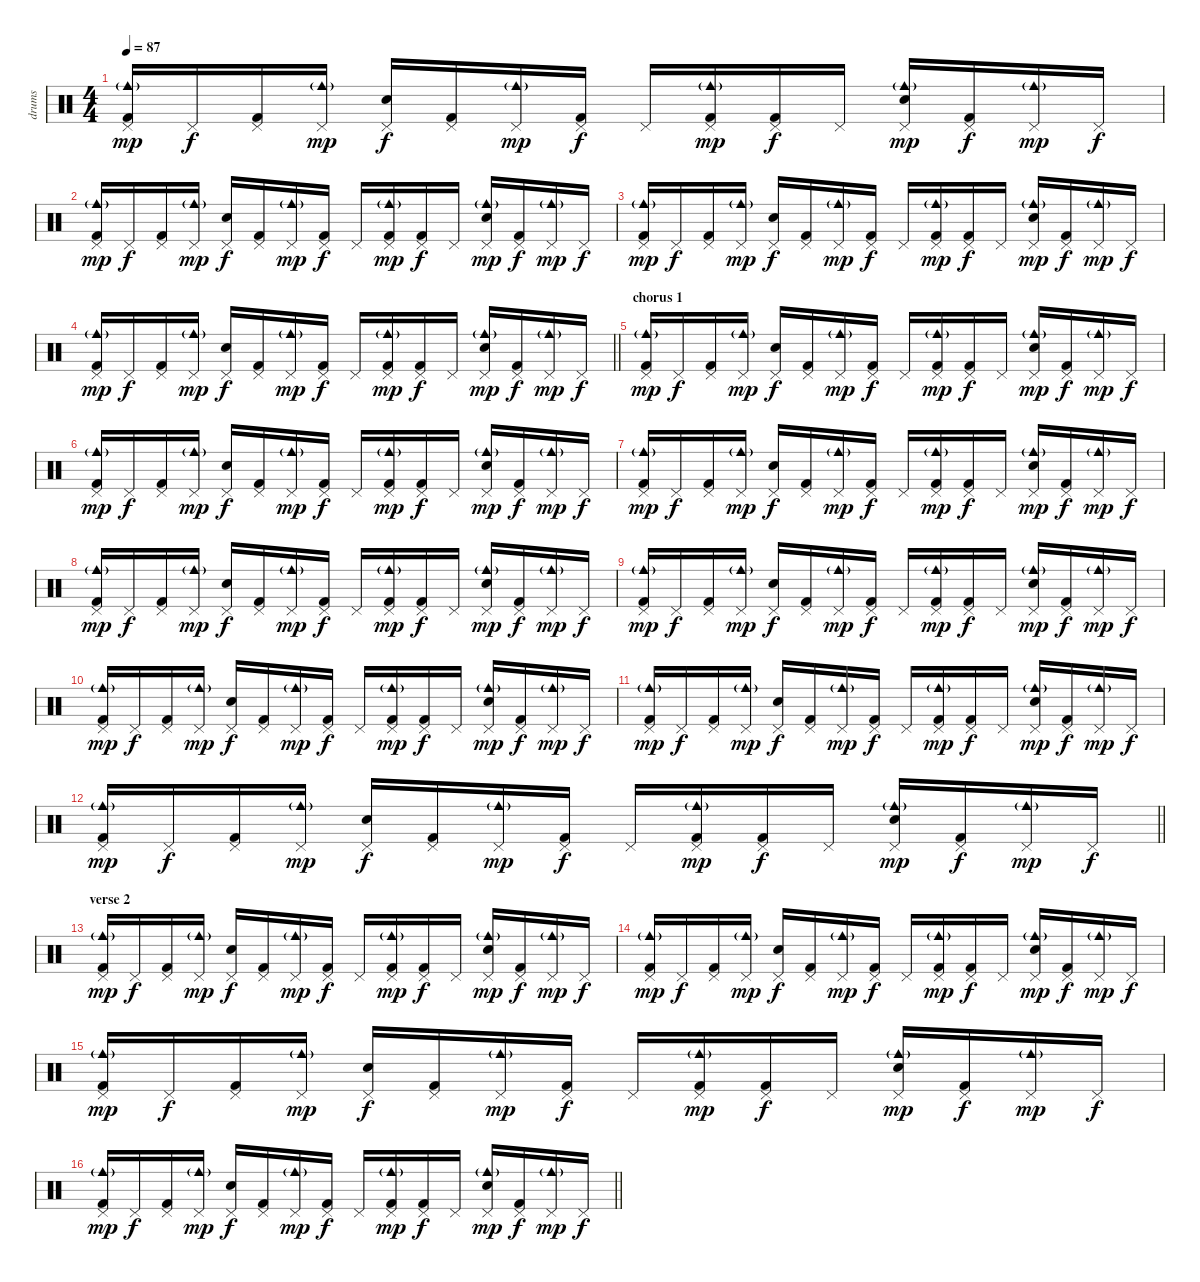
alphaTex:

\track ("drums" "drums") {instrument percussion}
\staff {score}
\articulation defaults
\ts (4 4)
\tempo 87
\clef neutral
\ks c
("Kick (hit) 2" "Pedal Hi-Hat (hit)" "Cowbell medium (hit)"{g}).16{dy mp} "Pedal Hi-Hat (hit)".16{dy f} ("Kick (hit) 2" "Pedal Hi-Hat (hit)").16 ("Pedal Hi-Hat (hit)" "Cowbell medium (hit)"{g}).16{dy mp} ("Snare (hit) 2" "Pedal Hi-Hat (hit)").16{dy f} ("Kick (hit) 2" "Pedal Hi-Hat (hit)").16 ("Pedal Hi-Hat (hit)" "Cowbell medium (hit)"{g}).16{dy mp} ("Kick (hit) 2" "Pedal Hi-Hat (hit)").16{dy f} "Pedal Hi-Hat (hit)".16 ("Kick (hit) 2" "Pedal Hi-Hat (hit)" "Cowbell medium (hit)"{g}).16{dy mp} ("Kick (hit) 2" "Pedal Hi-Hat (hit)").16{dy f} "Pedal Hi-Hat (hit)".16 ("Snare (hit) 2" "Pedal Hi-Hat (hit)" "Cowbell medium (hit)"{g}).16{dy mp} ("Kick (hit) 2" "Pedal Hi-Hat (hit)").16{dy f} ("Pedal Hi-Hat (hit)" "Cowbell medium (hit)"{g}).16{dy mp} "Pedal Hi-Hat (hit)".16{dy f} |
("Kick (hit) 2" "Pedal Hi-Hat (hit)" "Cowbell medium (hit)"{g}).16{dy mp} "Pedal Hi-Hat (hit)".16{dy f} ("Kick (hit) 2" "Pedal Hi-Hat (hit)").16 ("Pedal Hi-Hat (hit)" "Cowbell medium (hit)"{g}).16{dy mp} ("Snare (hit) 2" "Pedal Hi-Hat (hit)").16{dy f} ("Kick (hit) 2" "Pedal Hi-Hat (hit)").16 ("Pedal Hi-Hat (hit)" "Cowbell medium (hit)"{g}).16{dy mp} ("Kick (hit) 2" "Pedal Hi-Hat (hit)").16{dy f} "Pedal Hi-Hat (hit)".16 ("Kick (hit) 2" "Pedal Hi-Hat (hit)" "Cowbell medium (hit)"{g}).16{dy mp} ("Kick (hit) 2" "Pedal Hi-Hat (hit)").16{dy f} "Pedal Hi-Hat (hit)".16 ("Snare (hit) 2" "Pedal Hi-Hat (hit)" "Cowbell medium (hit)"{g}).16{dy mp} ("Kick (hit) 2" "Pedal Hi-Hat (hit)").16{dy f} ("Pedal Hi-Hat (hit)" "Cowbell medium (hit)"{g}).16{dy mp} "Pedal Hi-Hat (hit)".16{dy f} |
("Kick (hit) 2" "Pedal Hi-Hat (hit)" "Cowbell medium (hit)"{g}).16{dy mp} "Pedal Hi-Hat (hit)".16{dy f} ("Kick (hit) 2" "Pedal Hi-Hat (hit)").16 ("Pedal Hi-Hat (hit)" "Cowbell medium (hit)"{g}).16{dy mp} ("Snare (hit) 2" "Pedal Hi-Hat (hit)").16{dy f} ("Kick (hit) 2" "Pedal Hi-Hat (hit)").16 ("Pedal Hi-Hat (hit)" "Cowbell medium (hit)"{g}).16{dy mp} ("Kick (hit) 2" "Pedal Hi-Hat (hit)").16{dy f} "Pedal Hi-Hat (hit)".16 ("Kick (hit) 2" "Pedal Hi-Hat (hit)" "Cowbell medium (hit)"{g}).16{dy mp} ("Kick (hit) 2" "Pedal Hi-Hat (hit)").16{dy f} "Pedal Hi-Hat (hit)".16 ("Snare (hit) 2" "Pedal Hi-Hat (hit)" "Cowbell medium (hit)"{g}).16{dy mp} ("Kick (hit) 2" "Pedal Hi-Hat (hit)").16{dy f} ("Pedal Hi-Hat (hit)" "Cowbell medium (hit)"{g}).16{dy mp} "Pedal Hi-Hat (hit)".16{dy f} |
\barLineRight lightlight
("Kick (hit) 2" "Pedal Hi-Hat (hit)" "Cowbell medium (hit)"{g}).16{dy mp} "Pedal Hi-Hat (hit)".16{dy f} ("Kick (hit) 2" "Pedal Hi-Hat (hit)").16 ("Pedal Hi-Hat (hit)" "Cowbell medium (hit)"{g}).16{dy mp} ("Snare (hit) 2" "Pedal Hi-Hat (hit)").16{dy f} ("Kick (hit) 2" "Pedal Hi-Hat (hit)").16 ("Pedal Hi-Hat (hit)" "Cowbell medium (hit)"{g}).16{dy mp} ("Kick (hit) 2" "Pedal Hi-Hat (hit)").16{dy f} "Pedal Hi-Hat (hit)".16 ("Kick (hit) 2" "Pedal Hi-Hat (hit)" "Cowbell medium (hit)"{g}).16{dy mp} ("Kick (hit) 2" "Pedal Hi-Hat (hit)").16{dy f} "Pedal Hi-Hat (hit)".16 ("Snare (hit) 2" "Pedal Hi-Hat (hit)" "Cowbell medium (hit)"{g}).16{dy mp} ("Kick (hit) 2" "Pedal Hi-Hat (hit)").16{dy f} ("Pedal Hi-Hat (hit)" "Cowbell medium (hit)"{g}).16{dy mp} "Pedal Hi-Hat (hit)".16{dy f} |
\section ("" "chorus 1")
("Kick (hit) 2" "Pedal Hi-Hat (hit)" "Cowbell medium (hit)"{g}).16{dy mp} "Pedal Hi-Hat (hit)".16{dy f} ("Kick (hit) 2" "Pedal Hi-Hat (hit)").16 ("Pedal Hi-Hat (hit)" "Cowbell medium (hit)"{g}).16{dy mp} ("Snare (hit) 2" "Pedal Hi-Hat (hit)").16{dy f} ("Kick (hit) 2" "Pedal Hi-Hat (hit)").16 ("Pedal Hi-Hat (hit)" "Cowbell medium (hit)"{g}).16{dy mp} ("Kick (hit) 2" "Pedal Hi-Hat (hit)").16{dy f} "Pedal Hi-Hat (hit)".16 ("Kick (hit) 2" "Pedal Hi-Hat (hit)" "Cowbell medium (hit)"{g}).16{dy mp} ("Kick (hit) 2" "Pedal Hi-Hat (hit)").16{dy f} "Pedal Hi-Hat (hit)".16 ("Snare (hit) 2" "Pedal Hi-Hat (hit)" "Cowbell medium (hit)"{g}).16{dy mp} ("Kick (hit) 2" "Pedal Hi-Hat (hit)").16{dy f} ("Pedal Hi-Hat (hit)" "Cowbell medium (hit)"{g}).16{dy mp} "Pedal Hi-Hat (hit)".16{dy f} |
("Kick (hit) 2" "Pedal Hi-Hat (hit)" "Cowbell medium (hit)"{g}).16{dy mp} "Pedal Hi-Hat (hit)".16{dy f} ("Kick (hit) 2" "Pedal Hi-Hat (hit)").16 ("Pedal Hi-Hat (hit)" "Cowbell medium (hit)"{g}).16{dy mp} ("Snare (hit) 2" "Pedal Hi-Hat (hit)").16{dy f} ("Kick (hit) 2" "Pedal Hi-Hat (hit)").16 ("Pedal Hi-Hat (hit)" "Cowbell medium (hit)"{g}).16{dy mp} ("Kick (hit) 2" "Pedal Hi-Hat (hit)").16{dy f} "Pedal Hi-Hat (hit)".16 ("Kick (hit) 2" "Pedal Hi-Hat (hit)" "Cowbell medium (hit)"{g}).16{dy mp} ("Kick (hit) 2" "Pedal Hi-Hat (hit)").16{dy f} "Pedal Hi-Hat (hit)".16 ("Snare (hit) 2" "Pedal Hi-Hat (hit)" "Cowbell medium (hit)"{g}).16{dy mp} ("Kick (hit) 2" "Pedal Hi-Hat (hit)").16{dy f} ("Pedal Hi-Hat (hit)" "Cowbell medium (hit)"{g}).16{dy mp} "Pedal Hi-Hat (hit)".16{dy f} |
("Kick (hit) 2" "Pedal Hi-Hat (hit)" "Cowbell medium (hit)"{g}).16{dy mp} "Pedal Hi-Hat (hit)".16{dy f} ("Kick (hit) 2" "Pedal Hi-Hat (hit)").16 ("Pedal Hi-Hat (hit)" "Cowbell medium (hit)"{g}).16{dy mp} ("Snare (hit) 2" "Pedal Hi-Hat (hit)").16{dy f} ("Kick (hit) 2" "Pedal Hi-Hat (hit)").16 ("Pedal Hi-Hat (hit)" "Cowbell medium (hit)"{g}).16{dy mp} ("Kick (hit) 2" "Pedal Hi-Hat (hit)").16{dy f} "Pedal Hi-Hat (hit)".16 ("Kick (hit) 2" "Pedal Hi-Hat (hit)" "Cowbell medium (hit)"{g}).16{dy mp} ("Kick (hit) 2" "Pedal Hi-Hat (hit)").16{dy f} "Pedal Hi-Hat (hit)".16 ("Snare (hit) 2" "Pedal Hi-Hat (hit)" "Cowbell medium (hit)"{g}).16{dy mp} ("Kick (hit) 2" "Pedal Hi-Hat (hit)").16{dy f} ("Pedal Hi-Hat (hit)" "Cowbell medium (hit)"{g}).16{dy mp} "Pedal Hi-Hat (hit)".16{dy f} |
("Kick (hit) 2" "Pedal Hi-Hat (hit)" "Cowbell medium (hit)"{g}).16{dy mp} "Pedal Hi-Hat (hit)".16{dy f} ("Kick (hit) 2" "Pedal Hi-Hat (hit)").16 ("Pedal Hi-Hat (hit)" "Cowbell medium (hit)"{g}).16{dy mp} ("Snare (hit) 2" "Pedal Hi-Hat (hit)").16{dy f} ("Kick (hit) 2" "Pedal Hi-Hat (hit)").16 ("Pedal Hi-Hat (hit)" "Cowbell medium (hit)"{g}).16{dy mp} ("Kick (hit) 2" "Pedal Hi-Hat (hit)").16{dy f} "Pedal Hi-Hat (hit)".16 ("Kick (hit) 2" "Pedal Hi-Hat (hit)" "Cowbell medium (hit)"{g}).16{dy mp} ("Kick (hit) 2" "Pedal Hi-Hat (hit)").16{dy f} "Pedal Hi-Hat (hit)".16 ("Snare (hit) 2" "Pedal Hi-Hat (hit)" "Cowbell medium (hit)"{g}).16{dy mp} ("Kick (hit) 2" "Pedal Hi-Hat (hit)").16{dy f} ("Pedal Hi-Hat (hit)" "Cowbell medium (hit)"{g}).16{dy mp} "Pedal Hi-Hat (hit)".16{dy f} |
("Kick (hit) 2" "Pedal Hi-Hat (hit)" "Cowbell medium (hit)"{g}).16{dy mp} "Pedal Hi-Hat (hit)".16{dy f} ("Kick (hit) 2" "Pedal Hi-Hat (hit)").16 ("Pedal Hi-Hat (hit)" "Cowbell medium (hit)"{g}).16{dy mp} ("Snare (hit) 2" "Pedal Hi-Hat (hit)").16{dy f} ("Kick (hit) 2" "Pedal Hi-Hat (hit)").16 ("Pedal Hi-Hat (hit)" "Cowbell medium (hit)"{g}).16{dy mp} ("Kick (hit) 2" "Pedal Hi-Hat (hit)").16{dy f} "Pedal Hi-Hat (hit)".16 ("Kick (hit) 2" "Pedal Hi-Hat (hit)" "Cowbell medium (hit)"{g}).16{dy mp} ("Kick (hit) 2" "Pedal Hi-Hat (hit)").16{dy f} "Pedal Hi-Hat (hit)".16 ("Snare (hit) 2" "Pedal Hi-Hat (hit)" "Cowbell medium (hit)"{g}).16{dy mp} ("Kick (hit) 2" "Pedal Hi-Hat (hit)").16{dy f} ("Pedal Hi-Hat (hit)" "Cowbell medium (hit)"{g}).16{dy mp} "Pedal Hi-Hat (hit)".16{dy f} |
("Kick (hit) 2" "Pedal Hi-Hat (hit)" "Cowbell medium (hit)"{g}).16{dy mp} "Pedal Hi-Hat (hit)".16{dy f} ("Kick (hit) 2" "Pedal Hi-Hat (hit)").16 ("Pedal Hi-Hat (hit)" "Cowbell medium (hit)"{g}).16{dy mp} ("Snare (hit) 2" "Pedal Hi-Hat (hit)").16{dy f} ("Kick (hit) 2" "Pedal Hi-Hat (hit)").16 ("Pedal Hi-Hat (hit)" "Cowbell medium (hit)"{g}).16{dy mp} ("Kick (hit) 2" "Pedal Hi-Hat (hit)").16{dy f} "Pedal Hi-Hat (hit)".16 ("Kick (hit) 2" "Pedal Hi-Hat (hit)" "Cowbell medium (hit)"{g}).16{dy mp} ("Kick (hit) 2" "Pedal Hi-Hat (hit)").16{dy f} "Pedal Hi-Hat (hit)".16 ("Snare (hit) 2" "Pedal Hi-Hat (hit)" "Cowbell medium (hit)"{g}).16{dy mp} ("Kick (hit) 2" "Pedal Hi-Hat (hit)").16{dy f} ("Pedal Hi-Hat (hit)" "Cowbell medium (hit)"{g}).16{dy mp} "Pedal Hi-Hat (hit)".16{dy f} |
("Kick (hit) 2" "Pedal Hi-Hat (hit)" "Cowbell medium (hit)"{g}).16{dy mp} "Pedal Hi-Hat (hit)".16{dy f} ("Kick (hit) 2" "Pedal Hi-Hat (hit)").16 ("Pedal Hi-Hat (hit)" "Cowbell medium (hit)"{g}).16{dy mp} ("Snare (hit) 2" "Pedal Hi-Hat (hit)").16{dy f} ("Kick (hit) 2" "Pedal Hi-Hat (hit)").16 ("Pedal Hi-Hat (hit)" "Cowbell medium (hit)"{g}).16{dy mp} ("Kick (hit) 2" "Pedal Hi-Hat (hit)").16{dy f} "Pedal Hi-Hat (hit)".16 ("Kick (hit) 2" "Pedal Hi-Hat (hit)" "Cowbell medium (hit)"{g}).16{dy mp} ("Kick (hit) 2" "Pedal Hi-Hat (hit)").16{dy f} "Pedal Hi-Hat (hit)".16 ("Snare (hit) 2" "Pedal Hi-Hat (hit)" "Cowbell medium (hit)"{g}).16{dy mp} ("Kick (hit) 2" "Pedal Hi-Hat (hit)").16{dy f} ("Pedal Hi-Hat (hit)" "Cowbell medium (hit)"{g}).16{dy mp} "Pedal Hi-Hat (hit)".16{dy f} |
\barLineRight lightlight
("Kick (hit) 2" "Pedal Hi-Hat (hit)" "Cowbell medium (hit)"{g}).16{dy mp} "Pedal Hi-Hat (hit)".16{dy f} ("Kick (hit) 2" "Pedal Hi-Hat (hit)").16 ("Pedal Hi-Hat (hit)" "Cowbell medium (hit)"{g}).16{dy mp} ("Snare (hit) 2" "Pedal Hi-Hat (hit)").16{dy f} ("Kick (hit) 2" "Pedal Hi-Hat (hit)").16 ("Pedal Hi-Hat (hit)" "Cowbell medium (hit)"{g}).16{dy mp} ("Kick (hit) 2" "Pedal Hi-Hat (hit)").16{dy f} "Pedal Hi-Hat (hit)".16 ("Kick (hit) 2" "Pedal Hi-Hat (hit)" "Cowbell medium (hit)"{g}).16{dy mp} ("Kick (hit) 2" "Pedal Hi-Hat (hit)").16{dy f} "Pedal Hi-Hat (hit)".16 ("Snare (hit) 2" "Pedal Hi-Hat (hit)" "Cowbell medium (hit)"{g}).16{dy mp} ("Kick (hit) 2" "Pedal Hi-Hat (hit)").16{dy f} ("Pedal Hi-Hat (hit)" "Cowbell medium (hit)"{g}).16{dy mp} "Pedal Hi-Hat (hit)".16{dy f} |
\section ("" "verse 2")
("Kick (hit) 2" "Pedal Hi-Hat (hit)" "Cowbell medium (hit)"{g}).16{dy mp} "Pedal Hi-Hat (hit)".16{dy f} ("Kick (hit) 2" "Pedal Hi-Hat (hit)").16 ("Pedal Hi-Hat (hit)" "Cowbell medium (hit)"{g}).16{dy mp} ("Snare (hit) 2" "Pedal Hi-Hat (hit)").16{dy f} ("Kick (hit) 2" "Pedal Hi-Hat (hit)").16 ("Pedal Hi-Hat (hit)" "Cowbell medium (hit)"{g}).16{dy mp} ("Kick (hit) 2" "Pedal Hi-Hat (hit)").16{dy f} "Pedal Hi-Hat (hit)".16 ("Kick (hit) 2" "Pedal Hi-Hat (hit)" "Cowbell medium (hit)"{g}).16{dy mp} ("Kick (hit) 2" "Pedal Hi-Hat (hit)").16{dy f} "Pedal Hi-Hat (hit)".16 ("Snare (hit) 2" "Pedal Hi-Hat (hit)" "Cowbell medium (hit)"{g}).16{dy mp} ("Kick (hit) 2" "Pedal Hi-Hat (hit)").16{dy f} ("Pedal Hi-Hat (hit)" "Cowbell medium (hit)"{g}).16{dy mp} "Pedal Hi-Hat (hit)".16{dy f} |
("Kick (hit) 2" "Pedal Hi-Hat (hit)" "Cowbell medium (hit)"{g}).16{dy mp} "Pedal Hi-Hat (hit)".16{dy f} ("Kick (hit) 2" "Pedal Hi-Hat (hit)").16 ("Pedal Hi-Hat (hit)" "Cowbell medium (hit)"{g}).16{dy mp} ("Snare (hit) 2" "Pedal Hi-Hat (hit)").16{dy f} ("Kick (hit) 2" "Pedal Hi-Hat (hit)").16 ("Pedal Hi-Hat (hit)" "Cowbell medium (hit)"{g}).16{dy mp} ("Kick (hit) 2" "Pedal Hi-Hat (hit)").16{dy f} "Pedal Hi-Hat (hit)".16 ("Kick (hit) 2" "Pedal Hi-Hat (hit)" "Cowbell medium (hit)"{g}).16{dy mp} ("Kick (hit) 2" "Pedal Hi-Hat (hit)").16{dy f} "Pedal Hi-Hat (hit)".16 ("Snare (hit) 2" "Pedal Hi-Hat (hit)" "Cowbell medium (hit)"{g}).16{dy mp} ("Kick (hit) 2" "Pedal Hi-Hat (hit)").16{dy f} ("Pedal Hi-Hat (hit)" "Cowbell medium (hit)"{g}).16{dy mp} "Pedal Hi-Hat (hit)".16{dy f} |
("Kick (hit) 2" "Pedal Hi-Hat (hit)" "Cowbell medium (hit)"{g}).16{dy mp} "Pedal Hi-Hat (hit)".16{dy f} ("Kick (hit) 2" "Pedal Hi-Hat (hit)").16 ("Pedal Hi-Hat (hit)" "Cowbell medium (hit)"{g}).16{dy mp} ("Snare (hit) 2" "Pedal Hi-Hat (hit)").16{dy f} ("Kick (hit) 2" "Pedal Hi-Hat (hit)").16 ("Pedal Hi-Hat (hit)" "Cowbell medium (hit)"{g}).16{dy mp} ("Kick (hit) 2" "Pedal Hi-Hat (hit)").16{dy f} "Pedal Hi-Hat (hit)".16 ("Kick (hit) 2" "Pedal Hi-Hat (hit)" "Cowbell medium (hit)"{g}).16{dy mp} ("Kick (hit) 2" "Pedal Hi-Hat (hit)").16{dy f} "Pedal Hi-Hat (hit)".16 ("Snare (hit) 2" "Pedal Hi-Hat (hit)" "Cowbell medium (hit)"{g}).16{dy mp} ("Kick (hit) 2" "Pedal Hi-Hat (hit)").16{dy f} ("Pedal Hi-Hat (hit)" "Cowbell medium (hit)"{g}).16{dy mp} "Pedal Hi-Hat (hit)".16{dy f} |
\barLineRight lightlight
("Kick (hit) 2" "Pedal Hi-Hat (hit)" "Cowbell medium (hit)"{g}).16{dy mp} "Pedal Hi-Hat (hit)".16{dy f} ("Kick (hit) 2" "Pedal Hi-Hat (hit)").16 ("Pedal Hi-Hat (hit)" "Cowbell medium (hit)"{g}).16{dy mp} ("Snare (hit) 2" "Pedal Hi-Hat (hit)").16{dy f} ("Kick (hit) 2" "Pedal Hi-Hat (hit)").16 ("Pedal Hi-Hat (hit)" "Cowbell medium (hit)"{g}).16{dy mp} ("Kick (hit) 2" "Pedal Hi-Hat (hit)").16{dy f} "Pedal Hi-Hat (hit)".16 ("Kick (hit) 2" "Pedal Hi-Hat (hit)" "Cowbell medium (hit)"{g}).16{dy mp} ("Kick (hit) 2" "Pedal Hi-Hat (hit)").16{dy f} "Pedal Hi-Hat (hit)".16 ("Snare (hit) 2" "Pedal Hi-Hat (hit)" "Cowbell medium (hit)"{g}).16{dy mp} ("Kick (hit) 2" "Pedal Hi-Hat (hit)").16{dy f} ("Pedal Hi-Hat (hit)" "Cowbell medium (hit)"{g}).16{dy mp} "Pedal Hi-Hat (hit)".16{dy f}
